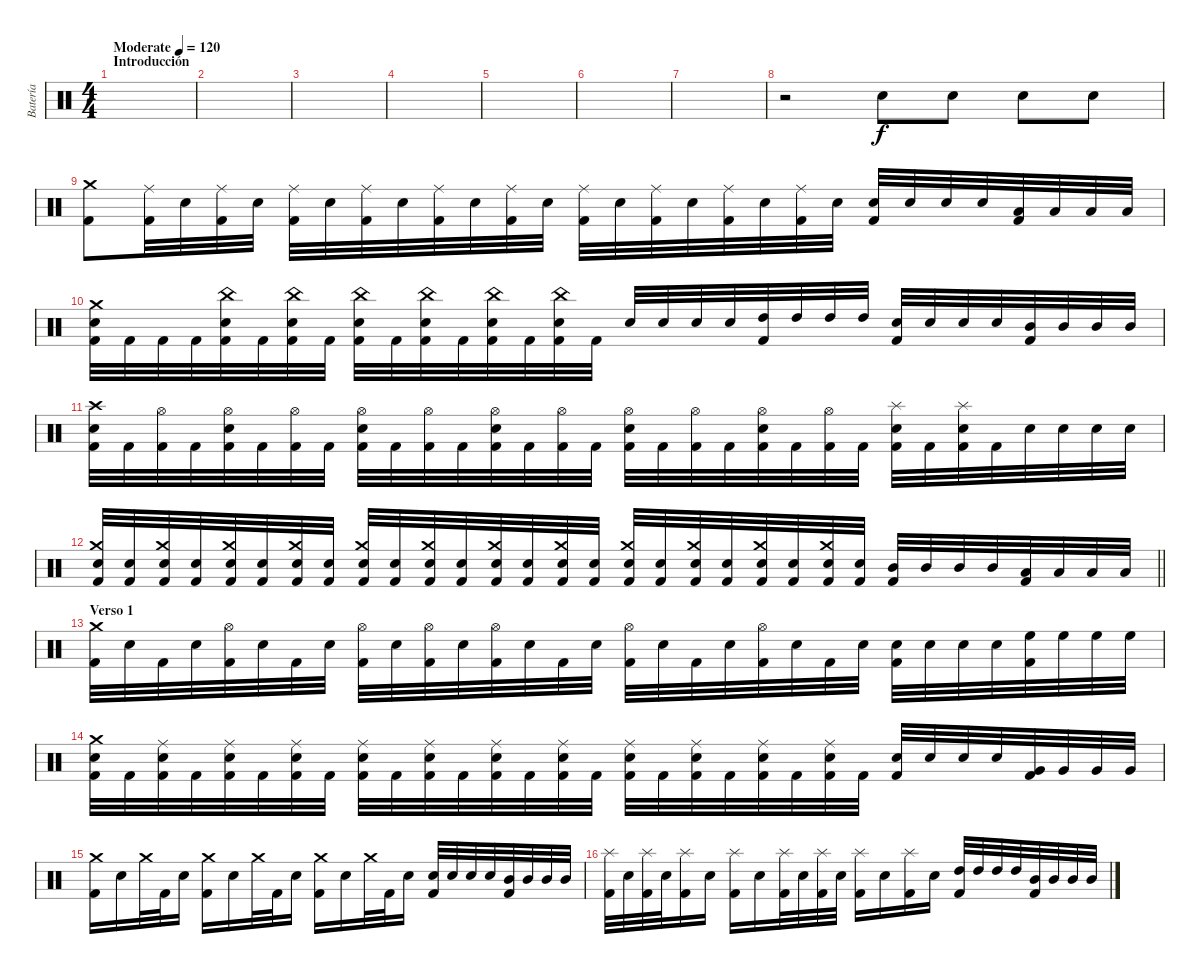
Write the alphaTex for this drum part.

\track ("Batería" "Batería") {instrument percussion}
\staff {score}
\articulation defaults
\ts (4 4)
\section ("" "Introducción")
\tempo (120 "Moderate")
\clef neutral
\ks c
|
|
|
|
|
|
|
r.2 "Electric Snare (hit)".8 "Electric Snare (hit)".8 "Electric Snare (hit)".8 "Electric Snare (hit)".8 |
("Crash medium (hit)" "Kick (hit) 2").8 ("Ride (middle)" "Kick (hit) 2").32 "Electric Snare (hit)".32 ("Ride (middle)" "Kick (hit) 2").32 "Electric Snare (hit)".32 ("Ride (middle)" "Kick (hit) 2").32 "Electric Snare (hit)".32 ("Ride (middle)" "Kick (hit) 2").32 "Electric Snare (hit)".32 ("Ride (middle)" "Kick (hit) 2").32 "Electric Snare (hit)".32 ("Ride (middle)" "Kick (hit) 2").32 "Electric Snare (hit)".32 ("Ride (middle)" "Kick (hit) 2").32 "Electric Snare (hit)".32 ("Ride (middle)" "Kick (hit) 2").32 "Electric Snare (hit)".32 ("Ride (middle)" "Kick (hit) 2").32 "Electric Snare (hit)".32 ("Ride (middle)" "Kick (hit) 2").32 "Electric Snare (hit)".32 ("Electric Snare (hit)" "Kick (hit) 2").32 "Electric Snare (hit)".32 "Electric Snare (hit)".32 "Electric Snare (hit)".32 ("Low Tom (hit)" "Kick (hit) 2").32 "Low Tom (hit)".32 "Low Tom (hit)".32 "Low Tom (hit)".32 |
("Crash medium (hit)" "Electric Snare (hit)" "Kick (hit) 2").32 "Kick (hit) 2".32 "Kick (hit) 2".32 "Kick (hit) 2".32 ("China (hit)" "Electric Snare (hit)" "Kick (hit) 2").32 "Kick (hit) 2".32 ("China (hit)" "Electric Snare (hit)" "Kick (hit) 2").32 "Kick (hit) 2".32 ("China (hit)" "Electric Snare (hit)" "Kick (hit) 2").32 "Kick (hit) 2".32 ("China (hit)" "Electric Snare (hit)" "Kick (hit) 2").32 "Kick (hit) 2".32 ("China (hit)" "Electric Snare (hit)" "Kick (hit) 2").32 "Kick (hit) 2".32 ("China (hit)" "Electric Snare (hit)" "Kick (hit) 2").32 "Kick (hit) 2".32 "Electric Snare (hit)".32 "Electric Snare (hit)".32 "Electric Snare (hit)".32 "Electric Snare (hit)".32 ("High Tom (hit)" "Kick (hit) 2").32 "High Tom (hit)".32 "High Tom (hit)".32 "High Tom (hit)".32 ("Electric Snare (hit)" "Kick (hit) 2").32 "Electric Snare (hit)".32 "Electric Snare (hit)".32 "Electric Snare (hit)".32 ("Mid Tom (hit)" "Kick (hit) 2").32 "Mid Tom (hit)".32 "Mid Tom (hit)".32 "Mid Tom (hit)".32 |
("Crash high (hit)" "Electric Snare (hit)" "Kick (hit) 2").32 "Kick (hit) 2".32 ("Hi-Hat (open)" "Kick (hit) 2").32 "Kick (hit) 2".32 ("Hi-Hat (open)" "Electric Snare (hit)" "Kick (hit) 2").32 "Kick (hit) 2".32 ("Hi-Hat (open)" "Kick (hit) 2").32 "Kick (hit) 2".32 ("Hi-Hat (open)" "Electric Snare (hit)" "Kick (hit) 2").32 "Kick (hit) 2".32 ("Hi-Hat (open)" "Kick (hit) 2").32 "Kick (hit) 2".32 ("Hi-Hat (open)" "Electric Snare (hit)" "Kick (hit) 2").32 "Kick (hit) 2".32 ("Hi-Hat (open)" "Kick (hit) 2").32 "Kick (hit) 2".32 ("Hi-Hat (open)" "Electric Snare (hit)" "Kick (hit) 2").32 "Kick (hit) 2".32 ("Hi-Hat (open)" "Kick (hit) 2").32 "Kick (hit) 2".32 ("Hi-Hat (open)" "Electric Snare (hit)" "Kick (hit) 2").32 "Kick (hit) 2".32 ("Hi-Hat (open)" "Kick (hit) 2").32 "Kick (hit) 2".32 ("Splash (hit)" "Electric Snare (hit)" "Kick (hit) 2").32 "Kick (hit) 2".32 ("Splash (hit)" "Electric Snare (hit)" "Kick (hit) 2").32 "Kick (hit) 2".32 "Electric Snare (hit)".32 "Electric Snare (hit)".32 "Electric Snare (hit)".32 "Electric Snare (hit)".32 |
\barLineRight lightlight
("Crash medium (hit)" "Electric Snare (hit)" "Kick (hit) 2").32 ("Electric Snare (hit)" "Kick (hit) 2").32 ("Crash medium (hit)" "Electric Snare (hit)" "Kick (hit) 2").32 ("Electric Snare (hit)" "Kick (hit) 2").32 ("Crash medium (hit)" "Electric Snare (hit)" "Kick (hit) 2").32 ("Electric Snare (hit)" "Kick (hit) 2").32 ("Crash medium (hit)" "Electric Snare (hit)" "Kick (hit) 2").32 ("Electric Snare (hit)" "Kick (hit) 2").32 ("Crash medium (hit)" "Electric Snare (hit)" "Kick (hit) 2").32 ("Electric Snare (hit)" "Kick (hit) 2").32 ("Crash medium (hit)" "Electric Snare (hit)" "Kick (hit) 2").32 ("Electric Snare (hit)" "Kick (hit) 2").32 ("Crash medium (hit)" "Electric Snare (hit)" "Kick (hit) 2").32 ("Electric Snare (hit)" "Kick (hit) 2").32 ("Crash medium (hit)" "Electric Snare (hit)" "Kick (hit) 2").32 ("Electric Snare (hit)" "Kick (hit) 2").32 ("Crash medium (hit)" "Electric Snare (hit)" "Kick (hit) 2").32 ("Electric Snare (hit)" "Kick (hit) 2").32 ("Crash medium (hit)" "Electric Snare (hit)" "Kick (hit) 2").32 ("Electric Snare (hit)" "Kick (hit) 2").32 ("Crash medium (hit)" "Electric Snare (hit)" "Kick (hit) 2").32 ("Electric Snare (hit)" "Kick (hit) 2").32 ("Crash medium (hit)" "Electric Snare (hit)" "Kick (hit) 2").32 ("Electric Snare (hit)" "Kick (hit) 2").32 ("Mid Tom (hit)" "Kick (hit) 2").32 "Mid Tom (hit)".32 "Mid Tom (hit)".32 "Mid Tom (hit)".32 ("Low Tom (hit)" "Kick (hit) 2").32 "Low Tom (hit)".32 "Low Tom (hit)".32 "Low Tom (hit)".32 |
\section ("" "Verso 1")
("Crash medium (hit)" "Kick (hit) 2").32 "Electric Snare (hit)".32 "Kick (hit) 2".32 "Electric Snare (hit)".32 ("Hi-Hat (open)" "Kick (hit) 2").32 "Electric Snare (hit)".32 "Kick (hit) 2".32 "Electric Snare (hit)".32 ("Hi-Hat (open)" "Kick (hit) 2").32 "Electric Snare (hit)".32 ("Hi-Hat (open)" "Kick (hit) 2").32 "Electric Snare (hit)".32 ("Hi-Hat (open)" "Kick (hit) 2").32 "Electric Snare (hit)".32 "Kick (hit) 2".32 "Electric Snare (hit)".32 ("Hi-Hat (open)" "Kick (hit) 2").32 "Electric Snare (hit)".32 "Kick (hit) 2".32 "Electric Snare (hit)".32 ("Hi-Hat (open)" "Kick (hit) 2").32 "Electric Snare (hit)".32 "Kick (hit) 2".32 "Electric Snare (hit)".32 ("Electric Snare (hit)" "Kick (hit) 2").32 "Electric Snare (hit)".32 "Electric Snare (hit)".32 "Electric Snare (hit)".32 ("High Floor Tom (hit)" "Kick (hit) 2").32 "High Floor Tom (hit)".32 "High Floor Tom (hit)".32 "High Floor Tom (hit)".32 |
("Crash medium (hit)" "Electric Snare (hit)" "Kick (hit) 2").32 "Kick (hit) 2".32 ("Ride (middle)" "Electric Snare (hit)" "Kick (hit) 2").32 "Kick (hit) 2".32 ("Ride (middle)" "Electric Snare (hit)" "Kick (hit) 2").32 "Kick (hit) 2".32 ("Ride (middle)" "Electric Snare (hit)" "Kick (hit) 2").32 "Kick (hit) 2".32 ("Ride (middle)" "Electric Snare (hit)" "Kick (hit) 2").32 "Kick (hit) 2".32 ("Ride (middle)" "Electric Snare (hit)" "Kick (hit) 2").32 "Kick (hit) 2".32 ("Ride (middle)" "Electric Snare (hit)" "Kick (hit) 2").32 "Kick (hit) 2".32 ("Ride (middle)" "Electric Snare (hit)" "Kick (hit) 2").32 "Kick (hit) 2".32 ("Ride (middle)" "Electric Snare (hit)" "Kick (hit) 2").32 "Kick (hit) 2".32 ("Ride (middle)" "Electric Snare (hit)" "Kick (hit) 2").32 "Kick (hit) 2".32 ("Ride (middle)" "Electric Snare (hit)" "Kick (hit) 2").32 "Kick (hit) 2".32 ("Ride (middle)" "Electric Snare (hit)" "Kick (hit) 2").32 "Kick (hit) 2".32 ("Electric Snare (hit)" "Kick (hit) 2").32 "Electric Snare (hit)".32 "Electric Snare (hit)".32 "Electric Snare (hit)".32 ("Very Low Tom (hit)" "Kick (hit) 2").32 "Very Low Tom (hit)".32 "Very Low Tom (hit)".32 "Very Low Tom (hit)".32 |
("Crash medium (hit)" "Kick (hit) 2").16 "Electric Snare (hit)".16 "Crash medium (hit)".32 "Kick (hit) 2".32 "Electric Snare (hit)".16 ("Crash medium (hit)" "Kick (hit) 2").16 "Electric Snare (hit)".16 "Crash medium (hit)".32 "Kick (hit) 2".32 "Electric Snare (hit)".16 ("Crash medium (hit)" "Kick (hit) 2").16 "Electric Snare (hit)".16 "Crash medium (hit)".32 "Kick (hit) 2".32 "Electric Snare (hit)".16 ("Electric Snare (hit)" "Kick (hit) 2").32 "Electric Snare (hit)".32 "Electric Snare (hit)".32 "Electric Snare (hit)".32 ("Mid Tom (hit)" "Kick (hit) 2").32 "Mid Tom (hit)".32 "Mid Tom (hit)".32 "Mid Tom (hit)".32 |
("Splash (hit)" "Kick (hit) 2").32 "Electric Snare (hit)".32 ("Splash (hit)" "Kick (hit) 2").32 "Electric Snare (hit)".32 ("Splash (hit)" "Kick (hit) 2").16 "Electric Snare (hit)".16 ("Splash (hit)" "Kick (hit) 2").16 "Electric Snare (hit)".16 ("Splash (hit)" "Kick (hit) 2").32 "Electric Snare (hit)".32 ("Splash (hit)" "Kick (hit) 2").32 "Electric Snare (hit)".32 ("Splash (hit)" "Kick (hit) 2").16 "Electric Snare (hit)".16 ("Splash (hit)" "Kick (hit) 2").16 "Electric Snare (hit)".16 ("High Tom (hit)" "Kick (hit) 2").32 "High Tom (hit)".32 "High Tom (hit)".32 "High Tom (hit)".32 ("Mid Tom (hit)" "Kick (hit) 2").32 "Mid Tom (hit)".32 "Mid Tom (hit)".32 "Mid Tom (hit)".32
